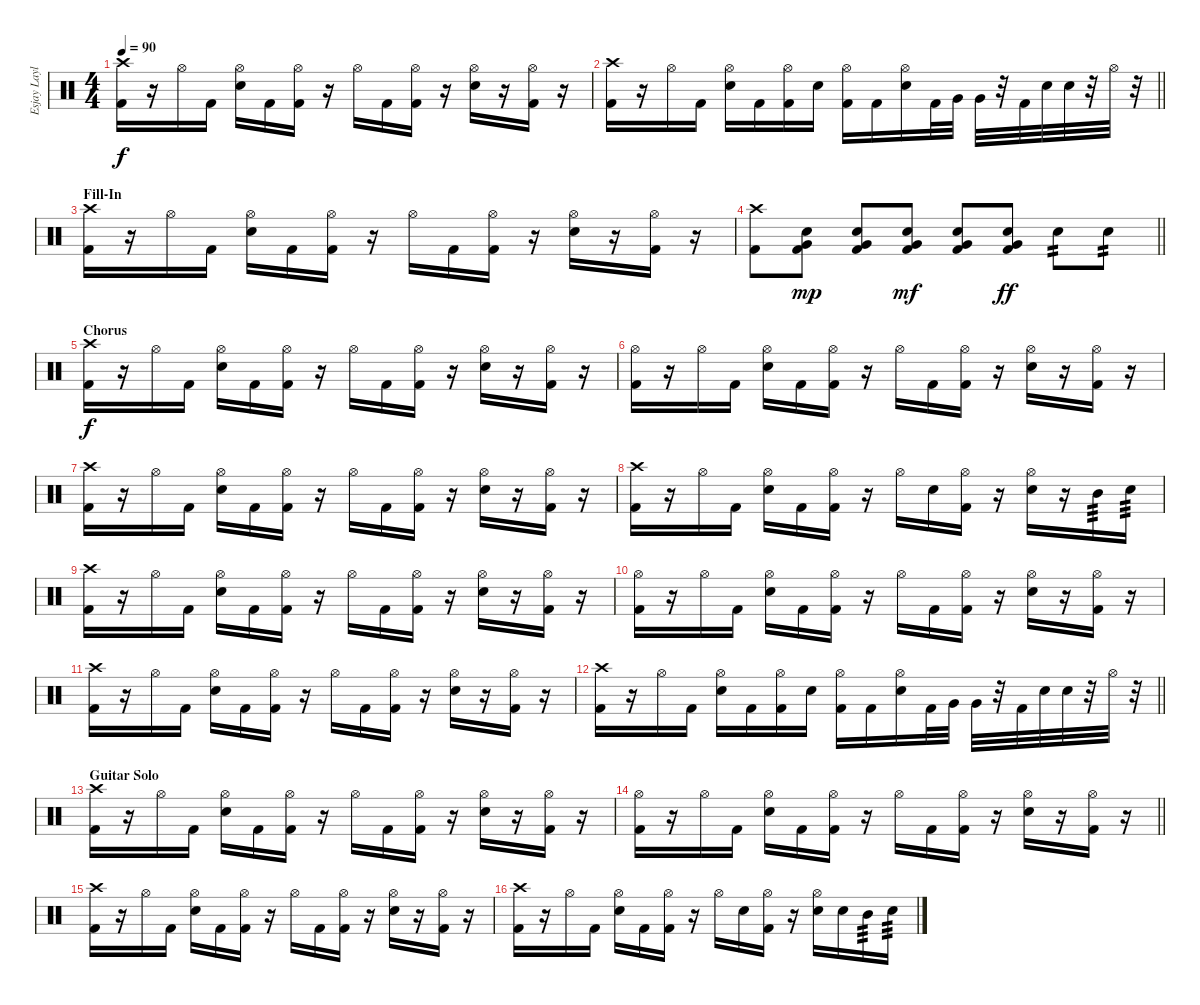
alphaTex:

\track ("Esjay Laylo's Drums" "Esjay Layl") {instrument percussion}
\staff {score}
\articulation defaults
\ts (4 4)
\tempo 90
\clef neutral
\ks c
("Crash high (hit)" "Kick (hit) 2").16{dy f} r.16 "Hi-Hat (open)".16 "Kick (hit) 2".16 ("Hi-Hat (open)" "Snare (hit) 2").16 "Kick (hit) 2".16 ("Hi-Hat (open)" "Kick (hit) 2").16 r.16 "Hi-Hat (open)".16 "Kick (hit) 2".16 ("Hi-Hat (open)" "Kick (hit) 2").16 r.16 ("Hi-Hat (open)" "Snare (hit) 2").16 r.16 ("Hi-Hat (open)" "Kick (hit) 2").16 r.16 |
\barLineRight lightlight
("Crash high (hit)" "Kick (hit) 2").16 r.16 "Hi-Hat (open)".16 "Kick (hit) 2".16 ("Hi-Hat (open)" "Snare (hit) 2").16 "Kick (hit) 2".16 ("Hi-Hat (open)" "Kick (hit) 2").16 "Snare (hit) 2".16 ("Hi-Hat (open)" "Kick (hit) 2").16 "Kick (hit) 2".16 ("Hi-Hat (open)" "Snare (hit) 2").16 "Kick (hit) 2".32 "Very Low Tom (hit)".32 "Very Low Tom (hit)".32 r.32 "Kick (hit) 2".32 "Snare (hit) 2".32 "Snare (hit) 2".32 r.32 "Hi-Hat (open)".32 r.32 |
\section ("" "Fill-In")
("Crash high (hit)" "Kick (hit) 2").16 r.16 "Hi-Hat (open)".16 "Kick (hit) 2".16 ("Hi-Hat (open)" "Snare (hit) 2").16 "Kick (hit) 2".16 ("Hi-Hat (open)" "Kick (hit) 2").16 r.16 "Hi-Hat (open)".16 "Kick (hit) 2".16 ("Hi-Hat (open)" "Kick (hit) 2").16 r.16 ("Hi-Hat (open)" "Snare (hit) 2").16 r.16 ("Hi-Hat (open)" "Kick (hit) 2").16 r.16 |
\barLineRight lightlight
("Crash high (hit)" "Kick (hit) 2").8 ("Very Low Tom (hit)" "Kick (hit) 2" "Snare (hit) 2").8{dy mp} ("Very Low Tom (hit)" "Kick (hit) 2" "Snare (hit) 2").8 ("Very Low Tom (hit)" "Kick (hit) 2" "Snare (hit) 2").8{dy mf} ("Very Low Tom (hit)" "Kick (hit) 2" "Snare (hit) 2").8 ("Very Low Tom (hit)" "Kick (hit) 2" "Snare (hit) 2").8{dy ff} "Snare (hit) 2".8{tp 2} "Snare (hit) 2".8{tp 2} |
\section ("" "Chorus")
("Crash high (hit)" "Kick (hit) 2").16{dy f} r.16 "Hi-Hat (open)".16 "Kick (hit) 2".16 ("Hi-Hat (open)" "Snare (hit) 2").16 "Kick (hit) 2".16 ("Hi-Hat (open)" "Kick (hit) 2").16 r.16 "Hi-Hat (open)".16 "Kick (hit) 2".16 ("Hi-Hat (open)" "Kick (hit) 2").16 r.16 ("Hi-Hat (open)" "Snare (hit) 2").16 r.16 ("Hi-Hat (open)" "Kick (hit) 2").16 r.16 |
("Hi-Hat (open)" "Kick (hit) 2").16 r.16 "Hi-Hat (open)".16 "Kick (hit) 2".16 ("Hi-Hat (open)" "Snare (hit) 2").16 "Kick (hit) 2".16 ("Hi-Hat (open)" "Kick (hit) 2").16 r.16 "Hi-Hat (open)".16 "Kick (hit) 2".16 ("Hi-Hat (open)" "Kick (hit) 2").16 r.16 ("Hi-Hat (open)" "Snare (hit) 2").16 r.16 ("Hi-Hat (open)" "Kick (hit) 2").16 r.16 |
("Crash high (hit)" "Kick (hit) 2").16 r.16 "Hi-Hat (open)".16 "Kick (hit) 2".16 ("Hi-Hat (open)" "Snare (hit) 2").16 "Kick (hit) 2".16 ("Hi-Hat (open)" "Kick (hit) 2").16 r.16 "Hi-Hat (open)".16 "Kick (hit) 2".16 ("Hi-Hat (open)" "Kick (hit) 2").16 r.16 ("Hi-Hat (open)" "Snare (hit) 2").16 r.16 ("Hi-Hat (open)" "Kick (hit) 2").16 r.16 |
("Crash high (hit)" "Kick (hit) 2").16 r.16 "Hi-Hat (open)".16 "Kick (hit) 2".16 ("Hi-Hat (open)" "Snare (hit) 2").16 "Kick (hit) 2".16 ("Hi-Hat (open)" "Kick (hit) 2").16 r.16 "Hi-Hat (open)".16 "Snare (hit) 2".16 ("Hi-Hat (open)" "Kick (hit) 2").16 r.16 ("Hi-Hat (open)" "Snare (hit) 2").16 r.16 "Mid Tom (hit)".16{tp 3} "Snare (hit) 2".16{tp 3} |
("Crash high (hit)" "Kick (hit) 2").16 r.16 "Hi-Hat (open)".16 "Kick (hit) 2".16 ("Hi-Hat (open)" "Snare (hit) 2").16 "Kick (hit) 2".16 ("Hi-Hat (open)" "Kick (hit) 2").16 r.16 "Hi-Hat (open)".16 "Kick (hit) 2".16 ("Hi-Hat (open)" "Kick (hit) 2").16 r.16 ("Hi-Hat (open)" "Snare (hit) 2").16 r.16 ("Hi-Hat (open)" "Kick (hit) 2").16 r.16 |
("Hi-Hat (open)" "Kick (hit) 2").16 r.16 "Hi-Hat (open)".16 "Kick (hit) 2".16 ("Hi-Hat (open)" "Snare (hit) 2").16 "Kick (hit) 2".16 ("Hi-Hat (open)" "Kick (hit) 2").16 r.16 "Hi-Hat (open)".16 "Kick (hit) 2".16 ("Hi-Hat (open)" "Kick (hit) 2").16 r.16 ("Hi-Hat (open)" "Snare (hit) 2").16 r.16 ("Hi-Hat (open)" "Kick (hit) 2").16 r.16 |
("Crash high (hit)" "Kick (hit) 2").16 r.16 "Hi-Hat (open)".16 "Kick (hit) 2".16 ("Hi-Hat (open)" "Snare (hit) 2").16 "Kick (hit) 2".16 ("Hi-Hat (open)" "Kick (hit) 2").16 r.16 "Hi-Hat (open)".16 "Kick (hit) 2".16 ("Hi-Hat (open)" "Kick (hit) 2").16 r.16 ("Hi-Hat (open)" "Snare (hit) 2").16 r.16 ("Hi-Hat (open)" "Kick (hit) 2").16 r.16 |
\barLineRight lightlight
("Crash high (hit)" "Kick (hit) 2").16 r.16 "Hi-Hat (open)".16 "Kick (hit) 2".16 ("Hi-Hat (open)" "Snare (hit) 2").16 "Kick (hit) 2".16 ("Hi-Hat (open)" "Kick (hit) 2").16 "Snare (hit) 2".16 ("Hi-Hat (open)" "Kick (hit) 2").16 "Kick (hit) 2".16 ("Hi-Hat (open)" "Snare (hit) 2").16 "Kick (hit) 2".32 "Very Low Tom (hit)".32 "Very Low Tom (hit)".32 r.32 "Kick (hit) 2".32 "Snare (hit) 2".32 "Snare (hit) 2".32 r.32 "Hi-Hat (open)".32 r.32 |
\section ("" "Guitar Solo")
("Crash high (hit)" "Kick (hit) 2").16 r.16 "Hi-Hat (open)".16 "Kick (hit) 2".16 ("Hi-Hat (open)" "Snare (hit) 2").16 "Kick (hit) 2".16 ("Hi-Hat (open)" "Kick (hit) 2").16 r.16 "Hi-Hat (open)".16 "Kick (hit) 2".16 ("Hi-Hat (open)" "Kick (hit) 2").16 r.16 ("Hi-Hat (open)" "Snare (hit) 2").16 r.16 ("Hi-Hat (open)" "Kick (hit) 2").16 r.16 |
\barLineRight lightlight
("Hi-Hat (open)" "Kick (hit) 2").16 r.16 "Hi-Hat (open)".16 "Kick (hit) 2".16 ("Hi-Hat (open)" "Snare (hit) 2").16 "Kick (hit) 2".16 ("Hi-Hat (open)" "Kick (hit) 2").16 r.16 "Hi-Hat (open)".16 "Kick (hit) 2".16 ("Hi-Hat (open)" "Kick (hit) 2").16 r.16 ("Hi-Hat (open)" "Snare (hit) 2").16 r.16 ("Hi-Hat (open)" "Kick (hit) 2").16 r.16 |
("Crash high (hit)" "Kick (hit) 2").16 r.16 "Hi-Hat (open)".16 "Kick (hit) 2".16 ("Hi-Hat (open)" "Snare (hit) 2").16 "Kick (hit) 2".16 ("Hi-Hat (open)" "Kick (hit) 2").16 r.16 "Hi-Hat (open)".16 "Kick (hit) 2".16 ("Hi-Hat (open)" "Kick (hit) 2").16 r.16 ("Hi-Hat (open)" "Snare (hit) 2").16 r.16 ("Hi-Hat (open)" "Kick (hit) 2").16 r.16 |
("Crash high (hit)" "Kick (hit) 2").16 r.16 "Hi-Hat (open)".16 "Kick (hit) 2".16 ("Hi-Hat (open)" "Snare (hit) 2").16 "Kick (hit) 2".16 ("Hi-Hat (open)" "Kick (hit) 2").16 r.16 "Hi-Hat (open)".16 "Snare (hit) 2".16 ("Hi-Hat (open)" "Kick (hit) 2").16 r.16 ("Hi-Hat (open)" "Snare (hit) 2").16 "Snare (hit) 2".16 "Mid Tom (hit)".16{tp 3} "Snare (hit) 2".16{tp 3}
